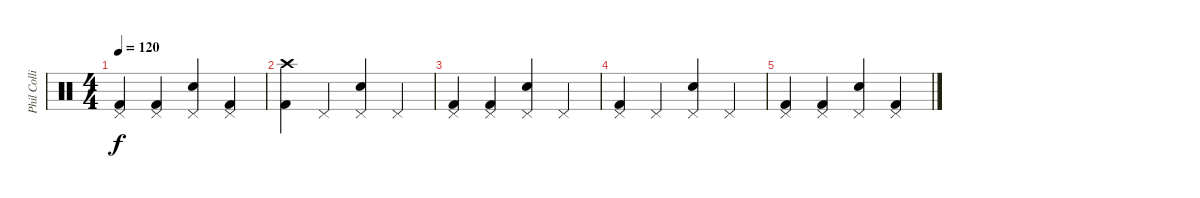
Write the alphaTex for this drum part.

\track ("Phil Collins" "Phil Colli") {instrument percussion}
\staff {score}
\articulation defaults
\ts (4 4)
\tempo 120
\clef neutral
\ks c
("Pedal Hi-Hat (hit)" "Kick (hit) 2").4{dy f} ("Pedal Hi-Hat (hit)" "Kick (hit) 2").4 ("Pedal Hi-Hat (hit)" "Snare (hit) 2").4 ("Pedal Hi-Hat (hit)" "Kick (hit) 2").4 |
("Crash high (hit)" "Kick (hit) 2").4 "Pedal Hi-Hat (hit)".4 ("Pedal Hi-Hat (hit)" "Snare (hit) 2").4 "Pedal Hi-Hat (hit)".4 |
("Pedal Hi-Hat (hit)" "Kick (hit) 2").4 ("Pedal Hi-Hat (hit)" "Kick (hit) 2").4 ("Pedal Hi-Hat (hit)" "Snare (hit) 2").4 "Pedal Hi-Hat (hit)".4 |
("Pedal Hi-Hat (hit)" "Kick (hit) 2").4 "Pedal Hi-Hat (hit)".4 ("Pedal Hi-Hat (hit)" "Snare (hit) 2").4 "Pedal Hi-Hat (hit)".4 |
("Pedal Hi-Hat (hit)" "Kick (hit) 2").4 ("Pedal Hi-Hat (hit)" "Kick (hit) 2").4 ("Pedal Hi-Hat (hit)" "Snare (hit) 2").4 ("Pedal Hi-Hat (hit)" "Kick (hit) 2").4
